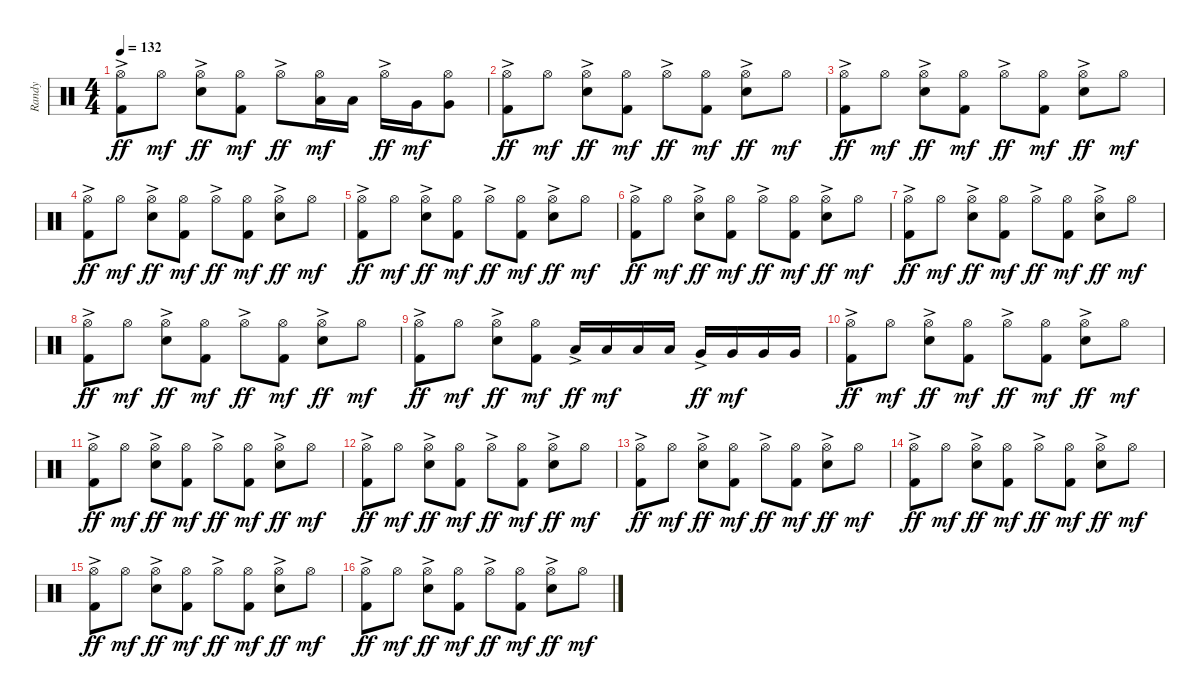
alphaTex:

\track ("Randy" "Randy") {instrument percussion}
\staff {score}
\articulation defaults
\ts (4 4)
\tempo 132
\clef neutral
\ks c
("Hi-Hat (open)"{ac} "Kick (hit) 2").8{dy ff} "Hi-Hat (open)".8{dy mf} ("Hi-Hat (open)"{ac} "Snare (hit) 2").8{dy ff} ("Hi-Hat (open)" "Kick (hit) 2").8{dy mf} "Hi-Hat (open)"{ac}.8{dy ff} ("Low Tom (hit)" "Hi-Hat (open)").16{dy mf} "Low Tom (hit)".16 "Hi-Hat (open)"{ac}.16{dy ff} "Very Low Tom (hit)".16{dy mf} ("Very Low Tom (hit)" "Hi-Hat (open)").8 |
("Hi-Hat (open)"{ac} "Kick (hit) 2").8{dy ff} "Hi-Hat (open)".8{dy mf} ("Hi-Hat (open)"{ac} "Snare (hit) 2").8{dy ff} ("Hi-Hat (open)" "Kick (hit) 2").8{dy mf} "Hi-Hat (open)"{ac}.8{dy ff} ("Hi-Hat (open)" "Kick (hit) 2").8{dy mf} ("Hi-Hat (open)"{ac} "Snare (hit) 2").8{dy ff} "Hi-Hat (open)".8{dy mf} |
("Hi-Hat (open)"{ac} "Kick (hit) 2").8{dy ff} "Hi-Hat (open)".8{dy mf} ("Hi-Hat (open)"{ac} "Snare (hit) 2").8{dy ff} ("Hi-Hat (open)" "Kick (hit) 2").8{dy mf} "Hi-Hat (open)"{ac}.8{dy ff} ("Hi-Hat (open)" "Kick (hit) 2").8{dy mf} ("Hi-Hat (open)"{ac} "Snare (hit) 2").8{dy ff} "Hi-Hat (open)".8{dy mf} |
("Hi-Hat (open)"{ac} "Kick (hit) 2").8{dy ff} "Hi-Hat (open)".8{dy mf} ("Hi-Hat (open)"{ac} "Snare (hit) 2").8{dy ff} ("Hi-Hat (open)" "Kick (hit) 2").8{dy mf} "Hi-Hat (open)"{ac}.8{dy ff} ("Hi-Hat (open)" "Kick (hit) 2").8{dy mf} ("Hi-Hat (open)"{ac} "Snare (hit) 2").8{dy ff} "Hi-Hat (open)".8{dy mf} |
("Hi-Hat (open)"{ac} "Kick (hit) 2").8{dy ff} "Hi-Hat (open)".8{dy mf} ("Hi-Hat (open)"{ac} "Snare (hit) 2").8{dy ff} ("Hi-Hat (open)" "Kick (hit) 2").8{dy mf} "Hi-Hat (open)"{ac}.8{dy ff} ("Hi-Hat (open)" "Kick (hit) 2").8{dy mf} ("Hi-Hat (open)"{ac} "Snare (hit) 2").8{dy ff} "Hi-Hat (open)".8{dy mf} |
("Hi-Hat (open)"{ac} "Kick (hit) 2").8{dy ff} "Hi-Hat (open)".8{dy mf} ("Hi-Hat (open)"{ac} "Snare (hit) 2").8{dy ff} ("Hi-Hat (open)" "Kick (hit) 2").8{dy mf} "Hi-Hat (open)"{ac}.8{dy ff} ("Hi-Hat (open)" "Kick (hit) 2").8{dy mf} ("Hi-Hat (open)"{ac} "Snare (hit) 2").8{dy ff} "Hi-Hat (open)".8{dy mf} |
("Hi-Hat (open)"{ac} "Kick (hit) 2").8{dy ff} "Hi-Hat (open)".8{dy mf} ("Hi-Hat (open)"{ac} "Snare (hit) 2").8{dy ff} ("Hi-Hat (open)" "Kick (hit) 2").8{dy mf} "Hi-Hat (open)"{ac}.8{dy ff} ("Hi-Hat (open)" "Kick (hit) 2").8{dy mf} ("Hi-Hat (open)"{ac} "Snare (hit) 2").8{dy ff} "Hi-Hat (open)".8{dy mf} |
("Hi-Hat (open)"{ac} "Kick (hit) 2").8{dy ff} "Hi-Hat (open)".8{dy mf} ("Hi-Hat (open)"{ac} "Snare (hit) 2").8{dy ff} ("Hi-Hat (open)" "Kick (hit) 2").8{dy mf} "Hi-Hat (open)"{ac}.8{dy ff} ("Hi-Hat (open)" "Kick (hit) 2").8{dy mf} ("Hi-Hat (open)"{ac} "Snare (hit) 2").8{dy ff} "Hi-Hat (open)".8{dy mf} |
("Hi-Hat (open)"{ac} "Kick (hit) 2").8{dy ff} "Hi-Hat (open)".8{dy mf} ("Hi-Hat (open)"{ac} "Snare (hit) 2").8{dy ff} ("Hi-Hat (open)" "Kick (hit) 2").8{dy mf} "Low Tom (hit)"{ac}.16{dy ff} "Low Tom (hit)".16{dy mf} "Low Tom (hit)".16 "Low Tom (hit)".16 "Very Low Tom (hit)"{ac}.16{dy ff} "Very Low Tom (hit)".16{dy mf} "Very Low Tom (hit)".16 "Very Low Tom (hit)".16 |
("Hi-Hat (open)"{ac} "Kick (hit) 2").8{dy ff} "Hi-Hat (open)".8{dy mf} ("Hi-Hat (open)"{ac} "Snare (hit) 2").8{dy ff} ("Hi-Hat (open)" "Kick (hit) 2").8{dy mf} "Hi-Hat (open)"{ac}.8{dy ff} ("Hi-Hat (open)" "Kick (hit) 2").8{dy mf} ("Hi-Hat (open)"{ac} "Snare (hit) 2").8{dy ff} "Hi-Hat (open)".8{dy mf} |
("Hi-Hat (open)"{ac} "Kick (hit) 2").8{dy ff} "Hi-Hat (open)".8{dy mf} ("Hi-Hat (open)"{ac} "Snare (hit) 2").8{dy ff} ("Hi-Hat (open)" "Kick (hit) 2").8{dy mf} "Hi-Hat (open)"{ac}.8{dy ff} ("Hi-Hat (open)" "Kick (hit) 2").8{dy mf} ("Hi-Hat (open)"{ac} "Snare (hit) 2").8{dy ff} "Hi-Hat (open)".8{dy mf} |
("Hi-Hat (open)"{ac} "Kick (hit) 2").8{dy ff} "Hi-Hat (open)".8{dy mf} ("Hi-Hat (open)"{ac} "Snare (hit) 2").8{dy ff} ("Hi-Hat (open)" "Kick (hit) 2").8{dy mf} "Hi-Hat (open)"{ac}.8{dy ff} ("Hi-Hat (open)" "Kick (hit) 2").8{dy mf} ("Hi-Hat (open)"{ac} "Snare (hit) 2").8{dy ff} "Hi-Hat (open)".8{dy mf} |
("Hi-Hat (open)"{ac} "Kick (hit) 2").8{dy ff} "Hi-Hat (open)".8{dy mf} ("Hi-Hat (open)"{ac} "Snare (hit) 2").8{dy ff} ("Hi-Hat (open)" "Kick (hit) 2").8{dy mf} "Hi-Hat (open)"{ac}.8{dy ff} ("Hi-Hat (open)" "Kick (hit) 2").8{dy mf} ("Hi-Hat (open)"{ac} "Snare (hit) 2").8{dy ff} "Hi-Hat (open)".8{dy mf} |
("Hi-Hat (open)"{ac} "Kick (hit) 2").8{dy ff} "Hi-Hat (open)".8{dy mf} ("Hi-Hat (open)"{ac} "Snare (hit) 2").8{dy ff} ("Hi-Hat (open)" "Kick (hit) 2").8{dy mf} "Hi-Hat (open)"{ac}.8{dy ff} ("Hi-Hat (open)" "Kick (hit) 2").8{dy mf} ("Hi-Hat (open)"{ac} "Snare (hit) 2").8{dy ff} "Hi-Hat (open)".8{dy mf} |
("Hi-Hat (open)"{ac} "Kick (hit) 2").8{dy ff} "Hi-Hat (open)".8{dy mf} ("Hi-Hat (open)"{ac} "Snare (hit) 2").8{dy ff} ("Hi-Hat (open)" "Kick (hit) 2").8{dy mf} "Hi-Hat (open)"{ac}.8{dy ff} ("Hi-Hat (open)" "Kick (hit) 2").8{dy mf} ("Hi-Hat (open)"{ac} "Snare (hit) 2").8{dy ff} "Hi-Hat (open)".8{dy mf} |
("Hi-Hat (open)"{ac} "Kick (hit) 2").8{dy ff} "Hi-Hat (open)".8{dy mf} ("Hi-Hat (open)"{ac} "Snare (hit) 2").8{dy ff} ("Hi-Hat (open)" "Kick (hit) 2").8{dy mf} "Hi-Hat (open)"{ac}.8{dy ff} ("Hi-Hat (open)" "Kick (hit) 2").8{dy mf} ("Hi-Hat (open)"{ac} "Snare (hit) 2").8{dy ff} "Hi-Hat (open)".8{dy mf}
